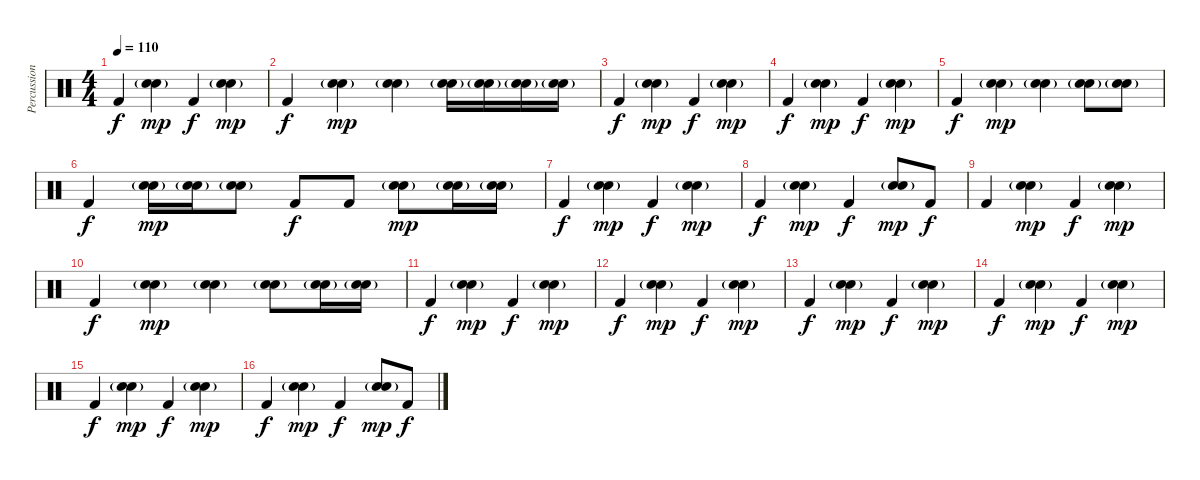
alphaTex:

\track ("Percussion" "Percussion") {instrument percussion}
\staff {score}
\articulation defaults
\ts (4 4)
\tempo 110
\clef neutral
\ks c "Kick (hit) 2".4{dy f}
("Electric Snare (hit)" "Snare (hit) 2"{g}).4{dy mp} "Kick (hit) 2".4{dy f} ("Electric Snare (hit)" "Snare (hit) 2"{g}).4{dy mp} |
"Kick (hit) 2".4{dy f} ("Electric Snare (hit)" "Snare (hit) 2"{g}).4{dy mp} ("Electric Snare (hit)" "Snare (hit) 2"{g}).4 ("Electric Snare (hit)" "Snare (hit) 2"{g}).16 ("Electric Snare (hit)"{g} "Snare (hit) 2"{g}).16 ("Electric Snare (hit)" "Snare (hit) 2"{g}).16 ("Electric Snare (hit)"{g} "Snare (hit) 2"{g}).16 |
"Kick (hit) 2".4{dy f} ("Electric Snare (hit)" "Snare (hit) 2"{g}).4{dy mp} "Kick (hit) 2".4{dy f} ("Electric Snare (hit)" "Snare (hit) 2"{g}).4{dy mp} |
"Kick (hit) 2".4{dy f} ("Electric Snare (hit)" "Snare (hit) 2"{g}).4{dy mp} "Kick (hit) 2".4{dy f} ("Electric Snare (hit)" "Snare (hit) 2"{g}).4{dy mp} |
"Kick (hit) 2".4{dy f} ("Electric Snare (hit)" "Snare (hit) 2"{g}).4{dy mp} ("Electric Snare (hit)" "Snare (hit) 2"{g}).4 ("Electric Snare (hit)" "Snare (hit) 2"{g}).8 ("Electric Snare (hit)"{g} "Snare (hit) 2"{g}).8 |
"Kick (hit) 2".4{dy f} ("Electric Snare (hit)" "Snare (hit) 2"{g}).16{dy mp} ("Electric Snare (hit)"{g} "Snare (hit) 2"{g}).16 ("Electric Snare (hit)" "Snare (hit) 2"{g}).8 "Kick (hit) 2".8{dy f} "Kick (hit) 2".8 ("Electric Snare (hit)" "Snare (hit) 2"{g}).8{dy mp} ("Electric Snare (hit)"{g} "Snare (hit) 2"{g}).16 ("Electric Snare (hit)" "Snare (hit) 2"{g}).16 |
"Kick (hit) 2".4{dy f} ("Electric Snare (hit)" "Snare (hit) 2"{g}).4{dy mp} "Kick (hit) 2".4{dy f} ("Electric Snare (hit)" "Snare (hit) 2"{g}).4{dy mp} |
"Kick (hit) 2".4{dy f} ("Electric Snare (hit)" "Snare (hit) 2"{g}).4{dy mp} "Kick (hit) 2".4{dy f} ("Electric Snare (hit)" "Snare (hit) 2"{g}).8{dy mp} "Kick (hit) 2".8{dy f} |
"Kick (hit) 2".4 ("Electric Snare (hit)" "Snare (hit) 2"{g}).4{dy mp} "Kick (hit) 2".4{dy f} ("Electric Snare (hit)" "Snare (hit) 2"{g}).4{dy mp} |
"Kick (hit) 2".4{dy f} ("Electric Snare (hit)" "Snare (hit) 2"{g}).4{dy mp} ("Electric Snare (hit)" "Snare (hit) 2"{g}).4 ("Electric Snare (hit)" "Snare (hit) 2"{g}).8 ("Electric Snare (hit)"{g} "Snare (hit) 2"{g}).16 ("Electric Snare (hit)" "Snare (hit) 2"{g}).16 |
"Kick (hit) 2".4{dy f} ("Electric Snare (hit)" "Snare (hit) 2"{g}).4{dy mp} "Kick (hit) 2".4{dy f} ("Electric Snare (hit)" "Snare (hit) 2"{g}).4{dy mp} |
"Kick (hit) 2".4{dy f} ("Electric Snare (hit)" "Snare (hit) 2"{g}).4{dy mp} "Kick (hit) 2".4{dy f} ("Electric Snare (hit)" "Snare (hit) 2"{g}).4{dy mp} |
"Kick (hit) 2".4{dy f} ("Electric Snare (hit)" "Snare (hit) 2"{g}).4{dy mp} "Kick (hit) 2".4{dy f} ("Electric Snare (hit)" "Snare (hit) 2"{g}).4{dy mp} |
"Kick (hit) 2".4{dy f} ("Electric Snare (hit)" "Snare (hit) 2"{g}).4{dy mp} "Kick (hit) 2".4{dy f} ("Electric Snare (hit)" "Snare (hit) 2"{g}).4{dy mp} |
"Kick (hit) 2".4{dy f} ("Electric Snare (hit)" "Snare (hit) 2"{g}).4{dy mp} "Kick (hit) 2".4{dy f} ("Electric Snare (hit)" "Snare (hit) 2"{g}).4{dy mp} |
"Kick (hit) 2".4{dy f} ("Electric Snare (hit)" "Snare (hit) 2"{g}).4{dy mp} "Kick (hit) 2".4{dy f} ("Electric Snare (hit)" "Snare (hit) 2"{g}).8{dy mp} "Kick (hit) 2".8{dy f}
